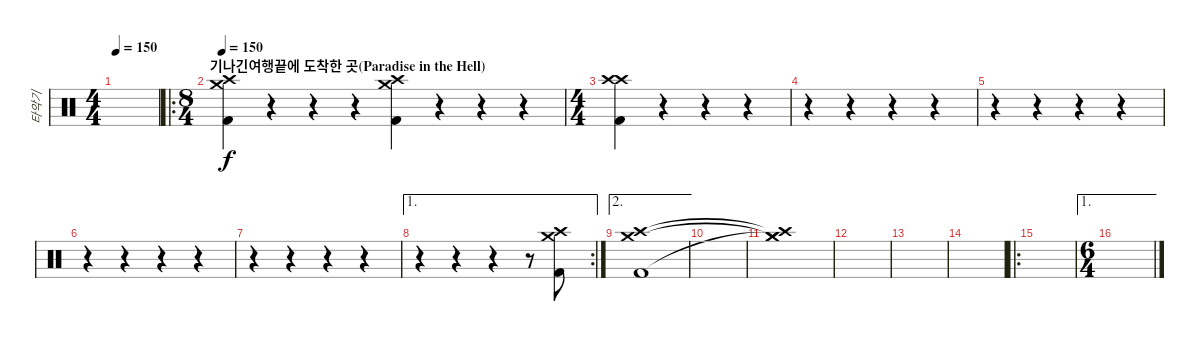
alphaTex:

\track ("타악기" "타악기") {instrument percussion}
\staff {score}
\articulation defaults
\ts (4 4)
\tempo 150
\clef neutral
\ks c
|
\ro
\ts (8 4)
\section ("" "기나긴여행끝에 도착한 곳(Paradise in the Hell)")
\tempo 150
("Crash high (hit)" "Crash medium (hit)" "Kick (hit) 2").4 r.4 r.4 r.4 ("Crash high (hit)" "Crash medium (hit)" "Kick (hit) 2").4 r.4 r.4 r.4 |
\ts (4 4)
("Crash high (hit)" "Crash high (hit)" "Kick (hit) 2").4 r.4 r.4 r.4 |
r.4 r.4 r.4 r.4 |
r.4 r.4 r.4 r.4 |
r.4 r.4 r.4 r.4 |
r.4 r.4 r.4 r.4 |
\ae 1
\rc 2
r.4 r.4 r.4 r.8 ("Crash high (hit)" "Crash medium (hit)" "Kick (hit) 2").8 |
\ae 2
("Kick (hit) 2" "Crash high (hit)" "Crash medium (hit)").1 |
|
("Crash medium (hit)"{t} "Crash high (hit)"{t} "Crash medium (hit)"{t}).1 |
|
|
|
\ro
|
\ae 1
\ts (6 4)
